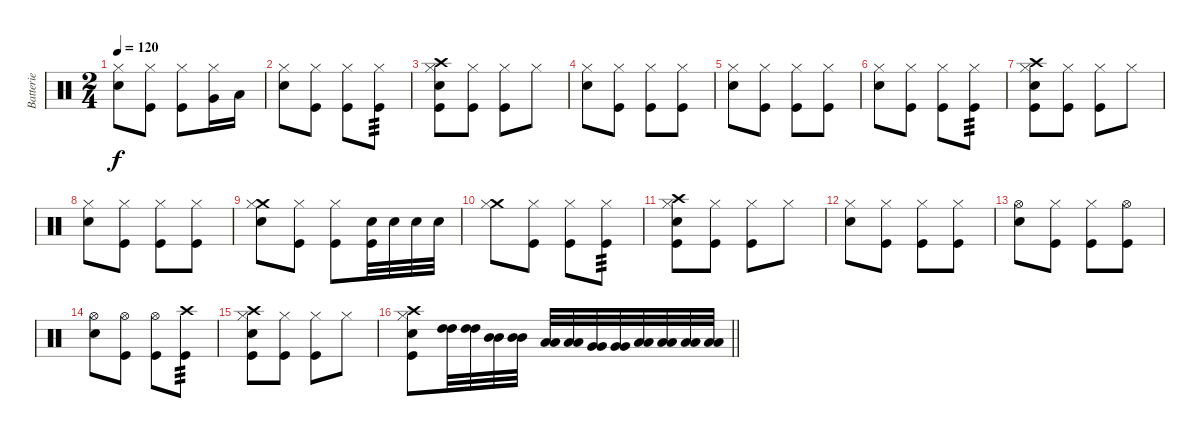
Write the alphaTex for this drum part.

\track ("Batterie" "Batterie") {instrument percussion}
\staff {score}
\articulation defaults
\ts (2 4)
\tempo 120
\clef neutral
\ks c
("Hi-Hat (closed)" "Electric Snare (hit)").8{dy f} ("Hi-Hat (closed)" "Kick (hit)").8 ("Hi-Hat (closed)" "Kick (hit)").8 ("Hi-Hat (closed)" "Very Low Tom (hit)").16 "Low Floor Tom (hit)".16 |
("Hi-Hat (closed)" "Electric Snare (hit)").8 ("Hi-Hat (closed)" "Kick (hit)").8 ("Hi-Hat (closed)" "Kick (hit)").8 ("Hi-Hat (closed)" "Kick (hit)").8{tp 3} |
("Crash high (hit)" "Hi-Hat (closed)" "Electric Snare (hit)" "Kick (hit)").8 ("Hi-Hat (closed)" "Kick (hit)").8 ("Hi-Hat (closed)" "Kick (hit)").8 "Hi-Hat (closed)".8 |
("Hi-Hat (closed)" "Electric Snare (hit)").8 ("Hi-Hat (closed)" "Kick (hit)").8 ("Hi-Hat (closed)" "Kick (hit)").8 ("Hi-Hat (closed)" "Kick (hit)").8 |
("Hi-Hat (closed)" "Electric Snare (hit)").8 ("Hi-Hat (closed)" "Kick (hit)").8 ("Hi-Hat (closed)" "Kick (hit)").8 ("Hi-Hat (closed)" "Kick (hit)").8 |
("Hi-Hat (closed)" "Electric Snare (hit)").8 ("Hi-Hat (closed)" "Kick (hit)").8 ("Hi-Hat (closed)" "Kick (hit)").8 ("Hi-Hat (closed)" "Kick (hit)").8{tp 3} |
("Crash high (hit)" "Hi-Hat (closed)" "Electric Snare (hit)" "Kick (hit)").8 ("Hi-Hat (closed)" "Kick (hit)").8 ("Hi-Hat (closed)" "Kick (hit)").8 "Hi-Hat (closed)".8 |
("Hi-Hat (closed)" "Electric Snare (hit)").8 ("Hi-Hat (closed)" "Kick (hit)").8 ("Hi-Hat (closed)" "Kick (hit)").8 ("Hi-Hat (closed)" "Kick (hit)").8 |
("Crash medium (hit)" "Hi-Hat (closed)" "Electric Snare (hit)").8 ("Hi-Hat (closed)" "Kick (hit)").8 ("Hi-Hat (closed)" "Kick (hit)").8 ("Electric Snare (hit)" "Kick (hit)").32 "Electric Snare (hit)".32 "Electric Snare (hit)".32 "Electric Snare (hit)".32 |
("Crash medium (hit)" "Hi-Hat (closed)").8 ("Hi-Hat (closed)" "Kick (hit)").8 ("Hi-Hat (closed)" "Kick (hit)").8 ("Hi-Hat (closed)" "Kick (hit)").8{tp 3} |
("Crash high (hit)" "Hi-Hat (closed)" "Electric Snare (hit)" "Kick (hit)").8 ("Hi-Hat (closed)" "Kick (hit)").8 ("Hi-Hat (closed)" "Kick (hit)").8 "Hi-Hat (closed)".8 |
("Hi-Hat (closed)" "Electric Snare (hit)").8 ("Hi-Hat (closed)" "Kick (hit)").8 ("Hi-Hat (closed)" "Kick (hit)").8 ("Hi-Hat (closed)" "Kick (hit)").8 |
("Hi-Hat (open)" "Electric Snare (hit)").8 ("Hi-Hat (closed)" "Kick (hit)").8 ("Hi-Hat (closed)" "Kick (hit)").8 ("Hi-Hat (open)" "Kick (hit)").8 |
("Hi-Hat (open)" "Electric Snare (hit)").8 ("Hi-Hat (open)" "Kick (hit)").8 ("Hi-Hat (open)" "Kick (hit)").8 ("Crash high (hit)" "Kick (hit)").8{tp 3} |
("Crash high (hit)" "Hi-Hat (closed)" "Electric Snare (hit)" "Kick (hit)").8 ("Hi-Hat (closed)" "Kick (hit)").8 ("Hi-Hat (closed)" "Kick (hit)").8 "Hi-Hat (closed)".8 |
\barLineRight lightlight
("Crash high (hit)" "Hi-Hat (closed)" "Electric Snare (hit)" "Kick (hit)").8 ("High Tom (hit)" "High Tom (hit)").32 ("High Tom (hit)" "High Tom (hit)").32 ("Mid Tom (hit)" "Mid Tom (hit)").32 ("Mid Tom (hit)" "Mid Tom (hit)").32 ("Low Tom (hit)" "Low Tom (hit)").32 ("Low Tom (hit)" "Low Tom (hit)").32 ("Very Low Tom (hit)" "Very Low Tom (hit)").32 ("Very Low Tom (hit)" "Very Low Tom (hit)").32 ("Low Floor Tom (hit)" "Low Floor Tom (hit)").32 ("Low Floor Tom (hit)" "Low Floor Tom (hit)").32 ("Low Floor Tom (hit)" "Low Floor Tom (hit)").32 ("Low Floor Tom (hit)" "Low Floor Tom (hit)").32
